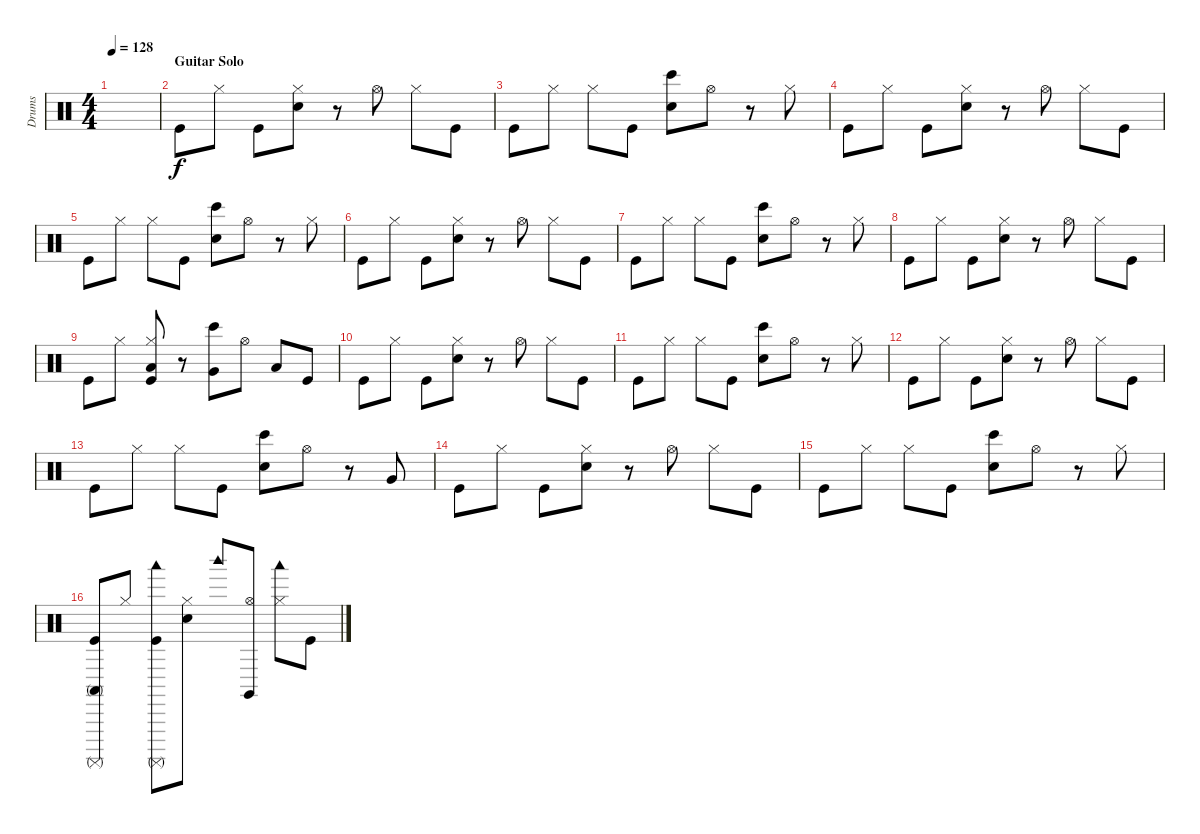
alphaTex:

\track ("Drums" "Drums") {instrument percussion}
\staff {score}
\articulation defaults
\ts (4 4)
\tempo 128
\clef neutral
\ks c
|
\section ("" "Guitar Solo")
"Kick (hit)".8 "Hi-Hat (closed)".8 "Kick (hit)".8 ("Hi-Hat (closed)" "Electric Snare (hit)").8 r.8 "Hi-Hat (open)".8 "Hi-Hat (closed)".8 "Kick (hit)".8 |
"Kick (hit)".8 "Hi-Hat (closed)".8 "Hi-Hat (closed)".8 "Kick (hit)".8 ("Bongo High (hit)" "Electric Snare (hit)").8 "Hi-Hat (open)".8 r.8 "Hi-Hat (closed)".8 |
"Kick (hit)".8 "Hi-Hat (closed)".8 "Kick (hit)".8 ("Hi-Hat (closed)" "Electric Snare (hit)").8 r.8 "Hi-Hat (open)".8 "Hi-Hat (closed)".8 "Kick (hit)".8 |
"Kick (hit)".8 "Hi-Hat (closed)".8 "Hi-Hat (closed)".8 "Kick (hit)".8 ("Bongo High (hit)" "Electric Snare (hit)").8 "Hi-Hat (open)".8 r.8 "Hi-Hat (closed)".8 |
"Kick (hit)".8 "Hi-Hat (closed)".8 "Kick (hit)".8 ("Hi-Hat (closed)" "Electric Snare (hit)").8 r.8 "Hi-Hat (open)".8 "Hi-Hat (closed)".8 "Kick (hit)".8 |
"Kick (hit)".8 "Hi-Hat (closed)".8 "Hi-Hat (closed)".8 "Kick (hit)".8 ("Bongo High (hit)" "Electric Snare (hit)").8 "Hi-Hat (open)".8 r.8 "Hi-Hat (closed)".8 |
"Kick (hit)".8 "Hi-Hat (closed)".8 "Kick (hit)".8 ("Hi-Hat (closed)" "Electric Snare (hit)").8 r.8 "Hi-Hat (open)".8 "Hi-Hat (closed)".8 "Kick (hit)".8 |
"Kick (hit)".8 "Hi-Hat (closed)".8 ("Hi-Hat (closed)" "Low Tom (hit)" "Kick (hit)").8 r.8 ("Bongo High (hit)" "Very Low Tom (hit)").8 "Hi-Hat (open)".8 "Low Floor Tom (hit)".8 "Kick (hit)".8 |
"Kick (hit)".8 "Hi-Hat (closed)".8 "Kick (hit)".8 ("Hi-Hat (closed)" "Electric Snare (hit)").8 r.8 "Hi-Hat (open)".8 "Hi-Hat (closed)".8 "Kick (hit)".8 |
"Kick (hit)".8 "Hi-Hat (closed)".8 "Hi-Hat (closed)".8 "Kick (hit)".8 ("Bongo High (hit)" "Electric Snare (hit)").8 "Hi-Hat (open)".8 r.8 "Hi-Hat (closed)".8 |
"Kick (hit)".8 "Hi-Hat (closed)".8 "Kick (hit)".8 ("Hi-Hat (closed)" "Electric Snare (hit)").8 r.8 "Hi-Hat (open)".8 "Hi-Hat (closed)".8 "Kick (hit)".8 |
"Kick (hit)".8 "Hi-Hat (closed)".8 "Hi-Hat (closed)".8 "Kick (hit)".8 ("Bongo High (hit)" "Electric Snare (hit)").8 "Hi-Hat (open)".8 r.8 "Very Low Tom (hit)".8 |
"Kick (hit)".8 "Hi-Hat (closed)".8 "Kick (hit)".8 ("Hi-Hat (closed)" "Electric Snare (hit)").8 r.8 "Hi-Hat (open)".8 "Hi-Hat (closed)".8 "Kick (hit)".8 |
"Kick (hit)".8 "Hi-Hat (closed)".8 "Hi-Hat (closed)".8 "Kick (hit)".8 ("Bongo High (hit)" "Electric Snare (hit)").8 "Hi-Hat (open)".8 r.8 "Hi-Hat (closed)".8 |
("Surdo (mute)" "Conga high (mute)" "Kick (hit)").8 "Hi-Hat (closed)".8 ("Surdo (mute)" "Woodblock low (hit)" "Kick (hit)").8 ("Hi-Hat (closed)" "Electric Snare (hit)").8 "Woodblock high (hit)".8 ("Hi-Hat (open)" "Claves (hit)").8 ("Hi-Hat (closed)" "Woodblock low (hit)").8 "Kick (hit)".8
